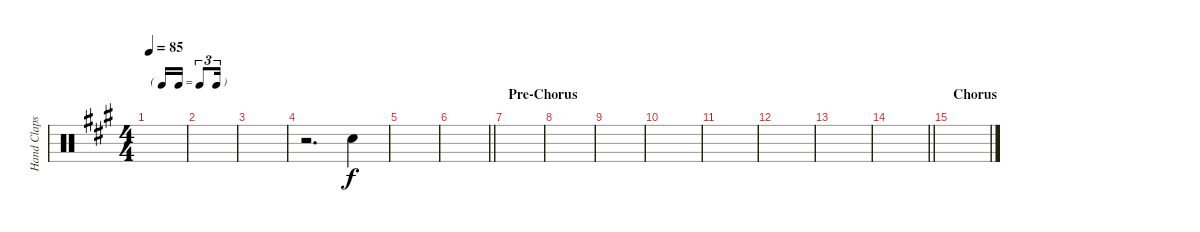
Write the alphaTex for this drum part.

\track ("Hand Claps" "Hand Claps") {instrument percussion}
\staff {score}
\articulation defaults
\ts (4 4)
\tf triplet16th
\tempo 85
\clef neutral
\ks a
|
|
|
r.2{d} "Hand Clap (hit)".4 |
|
\barLineRight lightlight
|
\section ("" "Pre-Chorus")
|
|
|
|
|
|
|
\barLineRight lightlight
|
\section ("" "Chorus")
